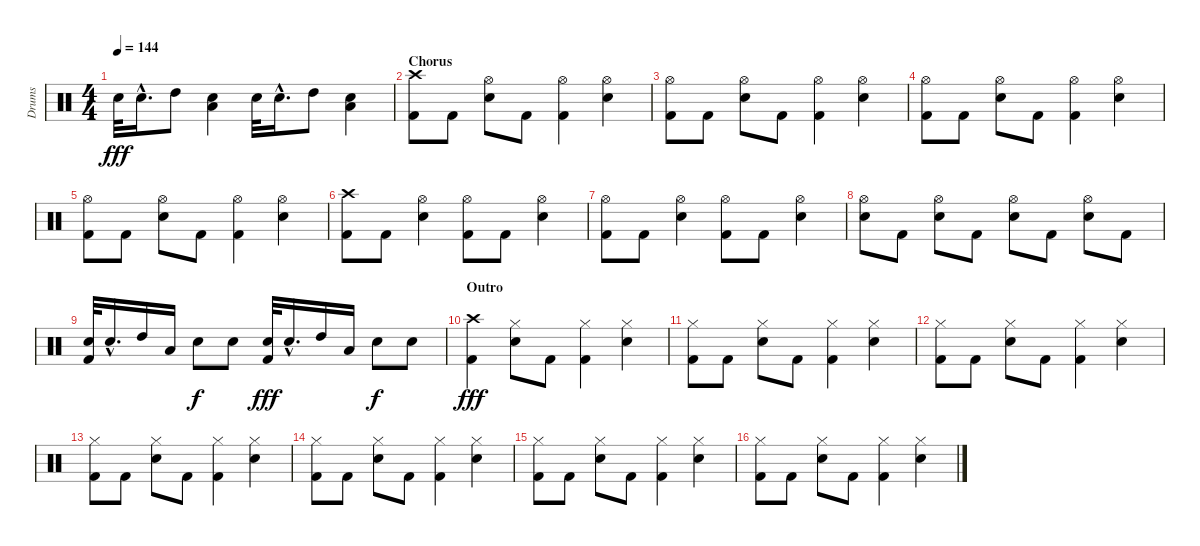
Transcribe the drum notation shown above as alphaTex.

\track ("Drums" "Drums") {instrument percussion}
\staff {score}
\articulation defaults
\ts (4 4)
\tempo 144
\clef neutral
\ks c "Snare (hit) 2".32{dy fff} "Snare (hit) 2"{hac}.16{d} "High Tom (hit)".8
("Snare (hit) 2" "Low Tom (hit)").4 "Snare (hit) 2".32 "Snare (hit) 2"{hac}.16{d} "High Tom (hit)".8 ("Snare (hit) 2" "Low Tom (hit)").4 |
\section ("" "Chorus")
("Crash high (hit)" "Kick (hit) 2").8 "Kick (hit) 2".8 ("Hi-Hat (open)" "Snare (hit) 2").8 "Kick (hit) 2".8 ("Hi-Hat (open)" "Kick (hit) 2").4 ("Hi-Hat (open)" "Snare (hit) 2").4 |
("Hi-Hat (open)" "Kick (hit) 2").8 "Kick (hit) 2".8 ("Hi-Hat (open)" "Snare (hit) 2").8 "Kick (hit) 2".8 ("Hi-Hat (open)" "Kick (hit) 2").4 ("Hi-Hat (open)" "Snare (hit) 2").4 |
("Hi-Hat (open)" "Kick (hit) 2").8 "Kick (hit) 2".8 ("Hi-Hat (open)" "Snare (hit) 2").8 "Kick (hit) 2".8 ("Hi-Hat (open)" "Kick (hit) 2").4 ("Hi-Hat (open)" "Snare (hit) 2").4 |
("Hi-Hat (open)" "Kick (hit) 2").8 "Kick (hit) 2".8 ("Hi-Hat (open)" "Snare (hit) 2").8 "Kick (hit) 2".8 ("Hi-Hat (open)" "Kick (hit) 2").4 ("Hi-Hat (open)" "Snare (hit) 2").4 |
("Crash high (hit)" "Kick (hit) 2").8 "Kick (hit) 2".8 ("Hi-Hat (open)" "Snare (hit) 2").4 ("Hi-Hat (open)" "Kick (hit) 2").8 "Kick (hit) 2".8 ("Hi-Hat (open)" "Snare (hit) 2").4 |
("Hi-Hat (open)" "Kick (hit) 2").8 "Kick (hit) 2".8 ("Hi-Hat (open)" "Snare (hit) 2").4 ("Hi-Hat (open)" "Kick (hit) 2").8 "Kick (hit) 2".8 ("Hi-Hat (open)" "Snare (hit) 2").4 |
("Hi-Hat (open)" "Snare (hit) 2").8 "Kick (hit) 2".8 ("Hi-Hat (open)" "Snare (hit) 2").8 "Kick (hit) 2".8 ("Hi-Hat (open)" "Snare (hit) 2").8 "Kick (hit) 2".8 ("Hi-Hat (open)" "Snare (hit) 2").8 "Kick (hit) 2".8 |
("Snare (hit) 2" "Kick (hit) 2").32 "Snare (hit) 2"{hac}.16{d} "High Tom (hit)".16 "Low Tom (hit)".16 "Snare (hit) 2".8{dy f} "Snare (hit) 2".8 ("Snare (hit) 2" "Kick (hit) 2").32{dy fff} "Snare (hit) 2"{hac}.16{d} "High Tom (hit)".16 "Low Tom (hit)".16 "Snare (hit) 2".8{dy f} "Snare (hit) 2".8 |
\section ("" "Outro")
("Crash high (hit)" "Kick (hit) 2").4{dy fff} ("Hi-Hat (closed)" "Snare (hit) 2").8 "Kick (hit) 2".8 ("Hi-Hat (closed)" "Kick (hit) 2").4 ("Hi-Hat (closed)" "Snare (hit) 2").4 |
("Hi-Hat (closed)" "Kick (hit) 2").8 "Kick (hit) 2".8 ("Hi-Hat (closed)" "Snare (hit) 2").8 "Kick (hit) 2".8 ("Hi-Hat (closed)" "Kick (hit) 2").4 ("Hi-Hat (closed)" "Snare (hit) 2").4 |
("Hi-Hat (closed)" "Kick (hit) 2").8 "Kick (hit) 2".8 ("Hi-Hat (closed)" "Snare (hit) 2").8 "Kick (hit) 2".8 ("Hi-Hat (closed)" "Kick (hit) 2").4 ("Hi-Hat (closed)" "Snare (hit) 2").4 |
("Hi-Hat (closed)" "Kick (hit) 2").8 "Kick (hit) 2".8 ("Hi-Hat (closed)" "Snare (hit) 2").8 "Kick (hit) 2".8 ("Hi-Hat (closed)" "Kick (hit) 2").4 ("Hi-Hat (closed)" "Snare (hit) 2").4 |
("Hi-Hat (closed)" "Kick (hit) 2").8 "Kick (hit) 2".8 ("Hi-Hat (closed)" "Snare (hit) 2").8 "Kick (hit) 2".8 ("Hi-Hat (closed)" "Kick (hit) 2").4 ("Hi-Hat (closed)" "Snare (hit) 2").4 |
("Hi-Hat (closed)" "Kick (hit) 2").8 "Kick (hit) 2".8 ("Hi-Hat (closed)" "Snare (hit) 2").8 "Kick (hit) 2".8 ("Hi-Hat (closed)" "Kick (hit) 2").4 ("Hi-Hat (closed)" "Snare (hit) 2").4 |
("Hi-Hat (closed)" "Kick (hit) 2").8 "Kick (hit) 2".8 ("Hi-Hat (closed)" "Snare (hit) 2").8 "Kick (hit) 2".8 ("Hi-Hat (closed)" "Kick (hit) 2").4 ("Hi-Hat (closed)" "Snare (hit) 2").4
